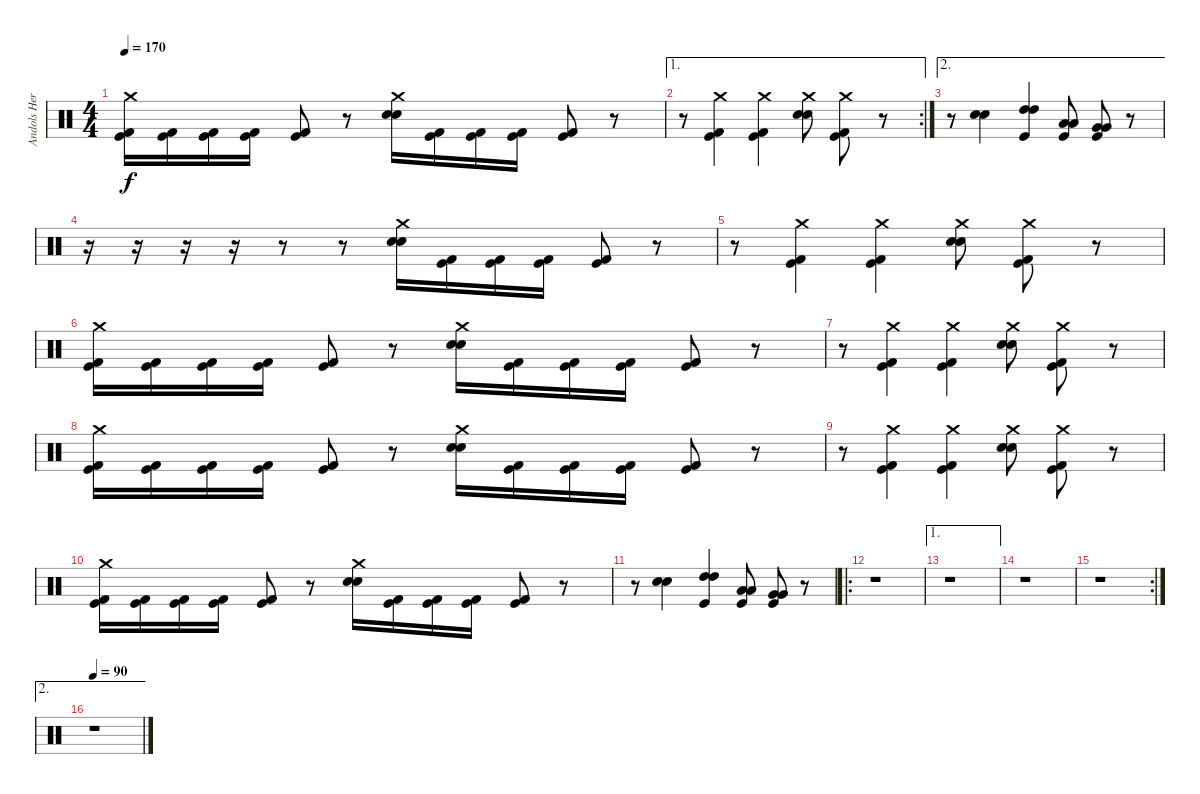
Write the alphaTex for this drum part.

\track ("Andols Herrick" "Andols Her") {instrument percussion}
\staff {score}
\articulation defaults
\ts (4 4)
\tempo 170
\clef neutral
\ks c
("Crash medium (hit)" "Kick (hit) 2" "Kick (hit)").16{dy f} ("Kick (hit) 2" "Kick (hit)").16 ("Kick (hit) 2" "Kick (hit)").16 ("Kick (hit) 2" "Kick (hit)").16 ("Kick (hit) 2" "Kick (hit)").8 r.8 ("Crash medium (hit)" "Electric Snare (hit)" "Snare (hit) 2").16 ("Kick (hit) 2" "Kick (hit)").16 ("Kick (hit) 2" "Kick (hit)").16 ("Kick (hit) 2" "Kick (hit)").16 ("Kick (hit) 2" "Kick (hit)").8 r.8 |
\ae 1
\rc 2
r.8 ("Crash medium (hit)" "Kick (hit) 2" "Kick (hit)").4 ("Crash medium (hit)" "Kick (hit) 2" "Kick (hit)").4 ("Crash medium (hit)" "Electric Snare (hit)" "Snare (hit) 2").8 ("Crash medium (hit)" "Kick (hit) 2" "Kick (hit)").8 r.8 |
\ae 2
r.8 ("Electric Snare (hit)" "Snare (hit) 2").4 ("High Tom (hit)" "High Tom (hit)" "Kick (hit)").4 ("Low Tom (hit)" "Low Tom (hit)" "Kick (hit)").8 ("Very Low Tom (hit)" "Very Low Tom (hit)" "Kick (hit)").8 r.8 |
r.16 r.16 r.16 r.16 r.8 r.8 ("Crash medium (hit)" "Electric Snare (hit)" "Snare (hit) 2").16 ("Kick (hit) 2" "Kick (hit)").16 ("Kick (hit) 2" "Kick (hit)").16 ("Kick (hit) 2" "Kick (hit)").16 ("Kick (hit) 2" "Kick (hit)").8 r.8 |
r.8 ("Crash medium (hit)" "Kick (hit) 2" "Kick (hit)").4 ("Crash medium (hit)" "Kick (hit) 2" "Kick (hit)").4 ("Crash medium (hit)" "Electric Snare (hit)" "Snare (hit) 2").8 ("Crash medium (hit)" "Kick (hit) 2" "Kick (hit)").8 r.8 |
("Crash medium (hit)" "Kick (hit) 2" "Kick (hit)").16 ("Kick (hit) 2" "Kick (hit)").16 ("Kick (hit) 2" "Kick (hit)").16 ("Kick (hit) 2" "Kick (hit)").16 ("Kick (hit) 2" "Kick (hit)").8 r.8 ("Crash medium (hit)" "Electric Snare (hit)" "Snare (hit) 2").16 ("Kick (hit) 2" "Kick (hit)").16 ("Kick (hit) 2" "Kick (hit)").16 ("Kick (hit) 2" "Kick (hit)").16 ("Kick (hit) 2" "Kick (hit)").8 r.8 |
r.8 ("Crash medium (hit)" "Kick (hit) 2" "Kick (hit)").4 ("Crash medium (hit)" "Kick (hit) 2" "Kick (hit)").4 ("Crash medium (hit)" "Electric Snare (hit)" "Snare (hit) 2").8 ("Crash medium (hit)" "Kick (hit) 2" "Kick (hit)").8 r.8 |
("Crash medium (hit)" "Kick (hit) 2" "Kick (hit)").16 ("Kick (hit) 2" "Kick (hit)").16 ("Kick (hit) 2" "Kick (hit)").16 ("Kick (hit) 2" "Kick (hit)").16 ("Kick (hit) 2" "Kick (hit)").8 r.8 ("Crash medium (hit)" "Electric Snare (hit)" "Snare (hit) 2").16 ("Kick (hit) 2" "Kick (hit)").16 ("Kick (hit) 2" "Kick (hit)").16 ("Kick (hit) 2" "Kick (hit)").16 ("Kick (hit) 2" "Kick (hit)").8 r.8 |
r.8 ("Crash medium (hit)" "Kick (hit) 2" "Kick (hit)").4 ("Crash medium (hit)" "Kick (hit) 2" "Kick (hit)").4 ("Crash medium (hit)" "Electric Snare (hit)" "Snare (hit) 2").8 ("Crash medium (hit)" "Kick (hit) 2" "Kick (hit)").8 r.8 |
("Crash medium (hit)" "Kick (hit) 2" "Kick (hit)").16 ("Kick (hit) 2" "Kick (hit)").16 ("Kick (hit) 2" "Kick (hit)").16 ("Kick (hit) 2" "Kick (hit)").16 ("Kick (hit) 2" "Kick (hit)").8 r.8 ("Crash medium (hit)" "Electric Snare (hit)" "Snare (hit) 2").16 ("Kick (hit) 2" "Kick (hit)").16 ("Kick (hit) 2" "Kick (hit)").16 ("Kick (hit) 2" "Kick (hit)").16 ("Kick (hit) 2" "Kick (hit)").8 r.8 |
r.8 ("Electric Snare (hit)" "Snare (hit) 2").4 ("High Tom (hit)" "High Tom (hit)" "Kick (hit)").4 ("Low Tom (hit)" "Low Tom (hit)" "Kick (hit)").8 ("Very Low Tom (hit)" "Very Low Tom (hit)" "Kick (hit)").8 r.8 |
\ro
r.1 |
\ae 1
r.1 |
r.1 |
\rc 2
r.1 |
\ae 2
\tempo 90
r.1
